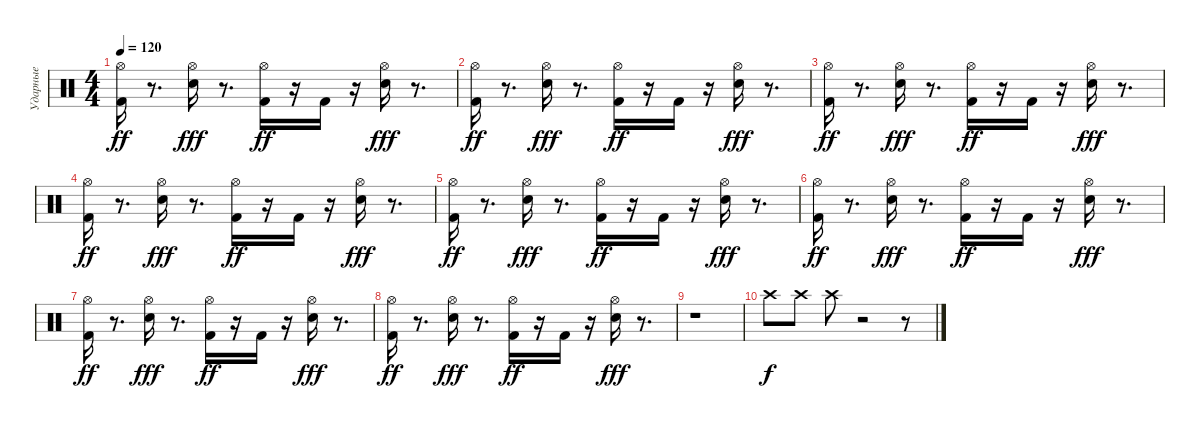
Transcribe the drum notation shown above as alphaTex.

\track ("Ударные" "Ударные") {instrument percussion}
\staff {score}
\articulation defaults
\ts (4 4)
\tempo 120
\clef neutral
\ks c
("Kick (hit) 2" "Hi-Hat (open)").16{dy ff} r.8{d} ("Snare (hit) 2" "Hi-Hat (open)").16{dy fff} r.8{d} ("Kick (hit) 2" "Hi-Hat (open)").16{dy ff} r.16 "Kick (hit) 2".16 r.16 ("Snare (hit) 2" "Hi-Hat (open)").16{dy fff} r.8{d} |
("Kick (hit) 2" "Hi-Hat (open)").16{dy ff} r.8{d} ("Snare (hit) 2" "Hi-Hat (open)").16{dy fff} r.8{d} ("Kick (hit) 2" "Hi-Hat (open)").16{dy ff} r.16 "Kick (hit) 2".16 r.16 ("Snare (hit) 2" "Hi-Hat (open)").16{dy fff} r.8{d} |
("Kick (hit) 2" "Hi-Hat (open)").16{dy ff} r.8{d} ("Snare (hit) 2" "Hi-Hat (open)").16{dy fff} r.8{d} ("Kick (hit) 2" "Hi-Hat (open)").16{dy ff} r.16 "Kick (hit) 2".16 r.16 ("Snare (hit) 2" "Hi-Hat (open)").16{dy fff} r.8{d} |
("Kick (hit) 2" "Hi-Hat (open)").16{dy ff} r.8{d} ("Snare (hit) 2" "Hi-Hat (open)").16{dy fff} r.8{d} ("Kick (hit) 2" "Hi-Hat (open)").16{dy ff} r.16 "Kick (hit) 2".16 r.16 ("Snare (hit) 2" "Hi-Hat (open)").16{dy fff} r.8{d} |
("Kick (hit) 2" "Hi-Hat (open)").16{dy ff} r.8{d} ("Snare (hit) 2" "Hi-Hat (open)").16{dy fff} r.8{d} ("Kick (hit) 2" "Hi-Hat (open)").16{dy ff} r.16 "Kick (hit) 2".16 r.16 ("Snare (hit) 2" "Hi-Hat (open)").16{dy fff} r.8{d} |
("Kick (hit) 2" "Hi-Hat (open)").16{dy ff} r.8{d} ("Snare (hit) 2" "Hi-Hat (open)").16{dy fff} r.8{d} ("Kick (hit) 2" "Hi-Hat (open)").16{dy ff} r.16 "Kick (hit) 2".16 r.16 ("Snare (hit) 2" "Hi-Hat (open)").16{dy fff} r.8{d} |
("Kick (hit) 2" "Hi-Hat (open)").16{dy ff} r.8{d} ("Snare (hit) 2" "Hi-Hat (open)").16{dy fff} r.8{d} ("Kick (hit) 2" "Hi-Hat (open)").16{dy ff} r.16 "Kick (hit) 2".16 r.16 ("Snare (hit) 2" "Hi-Hat (open)").16{dy fff} r.8{d} |
("Kick (hit) 2" "Hi-Hat (open)").16{dy ff} r.8{d} ("Snare (hit) 2" "Hi-Hat (open)").16{dy fff} r.8{d} ("Kick (hit) 2" "Hi-Hat (open)").16{dy ff} r.16 "Kick (hit) 2".16 r.16 ("Snare (hit) 2" "Hi-Hat (open)").16{dy fff} r.8{d} |
r.1 |
"Crash high (hit)".8{dy f} "Crash high (hit)".8 "Crash high (hit)".8 r.2 r.8
